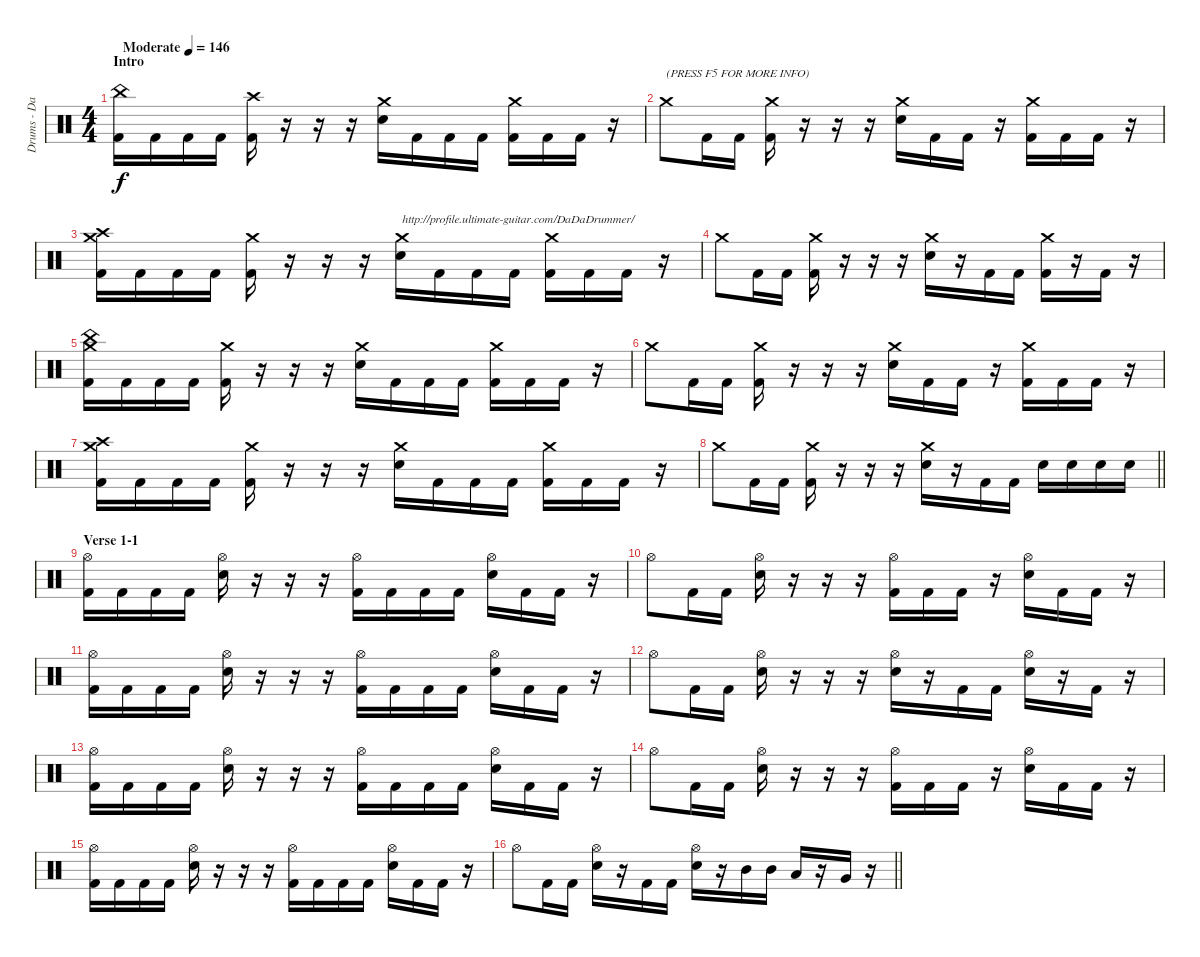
\track ("Drums - DaDa" "Drums - Da") {instrument percussion}
\staff {score}
\articulation defaults
\ts (4 4)
\section ("" "Intro")
\tempo (146 "Moderate")
\clef neutral
\ks c
("China (hit)" "Kick (hit) 2").16{dy f} "Kick (hit) 2".16 "Kick (hit) 2".16 "Kick (hit) 2".16 ("Crash high (hit)" "Kick (hit) 2").16 r.16 r.16 r.16 ("Crash medium (hit)" "Electric Snare (hit)").16 "Kick (hit) 2".16 "Kick (hit) 2".16 "Kick (hit) 2".16 ("Crash medium (hit)" "Kick (hit) 2").16 "Kick (hit) 2".16 "Kick (hit) 2".16 r.16 |
"Crash medium (hit)".8{txt "(PRESS F5 FOR MORE INFO)"} "Kick (hit) 2".16 "Kick (hit) 2".16 ("Crash medium (hit)" "Kick (hit) 2").16 r.16 r.16 r.16 ("Crash medium (hit)" "Electric Snare (hit)").16 "Kick (hit) 2".16 "Kick (hit) 2".16 r.16 ("Crash medium (hit)" "Kick (hit) 2").16 "Kick (hit) 2".16 "Kick (hit) 2".16 r.16 |
("Crash medium (hit)" "Crash high (hit)" "Kick (hit) 2").16 "Kick (hit) 2".16 "Kick (hit) 2".16 "Kick (hit) 2".16 ("Crash medium (hit)" "Kick (hit) 2").16 r.16 r.16 r.16 ("Crash medium (hit)" "Electric Snare (hit)").16{txt "http://profile.ultimate-guitar.com/DaDaDrummer/"} "Kick (hit) 2".16 "Kick (hit) 2".16 "Kick (hit) 2".16 ("Crash medium (hit)" "Kick (hit) 2").16 "Kick (hit) 2".16 "Kick (hit) 2".16 r.16 |
"Crash medium (hit)".8 "Kick (hit) 2".16 "Kick (hit) 2".16 ("Crash medium (hit)" "Kick (hit) 2").16 r.16 r.16 r.16 ("Crash medium (hit)" "Electric Snare (hit)").16 r.16 "Kick (hit) 2".16 "Kick (hit) 2".16 ("Crash medium (hit)" "Kick (hit) 2").16 r.16 "Kick (hit) 2".16 r.16 |
("China (hit)" "Crash medium (hit)" "Kick (hit) 2").16 "Kick (hit) 2".16 "Kick (hit) 2".16 "Kick (hit) 2".16 ("Crash medium (hit)" "Kick (hit) 2").16 r.16 r.16 r.16 ("Crash medium (hit)" "Electric Snare (hit)").16 "Kick (hit) 2".16 "Kick (hit) 2".16 "Kick (hit) 2".16 ("Crash medium (hit)" "Kick (hit) 2").16 "Kick (hit) 2".16 "Kick (hit) 2".16 r.16 |
"Crash medium (hit)".8 "Kick (hit) 2".16 "Kick (hit) 2".16 ("Crash medium (hit)" "Kick (hit) 2").16 r.16 r.16 r.16 ("Crash medium (hit)" "Electric Snare (hit)").16 "Kick (hit) 2".16 "Kick (hit) 2".16 r.16 ("Crash medium (hit)" "Kick (hit) 2").16 "Kick (hit) 2".16 "Kick (hit) 2".16 r.16 |
("Crash medium (hit)" "Crash high (hit)" "Kick (hit) 2").16 "Kick (hit) 2".16 "Kick (hit) 2".16 "Kick (hit) 2".16 ("Crash medium (hit)" "Kick (hit) 2").16 r.16 r.16 r.16 ("Crash medium (hit)" "Electric Snare (hit)").16 "Kick (hit) 2".16 "Kick (hit) 2".16 "Kick (hit) 2".16 ("Crash medium (hit)" "Kick (hit) 2").16 "Kick (hit) 2".16 "Kick (hit) 2".16 r.16 |
\barLineRight lightlight "Crash medium (hit)".8 "Kick (hit) 2".16 "Kick (hit) 2".16
("Crash medium (hit)" "Kick (hit) 2").16 r.16 r.16 r.16 ("Crash medium (hit)" "Electric Snare (hit)").16 r.16 "Kick (hit) 2".16 "Kick (hit) 2".16 "Electric Snare (hit)".16 "Electric Snare (hit)".16 "Electric Snare (hit)".16 "Electric Snare (hit)".16 |
\section ("" "Verse 1-1")
("Hi-Hat (open)" "Kick (hit) 2").16 "Kick (hit) 2".16 "Kick (hit) 2".16 "Kick (hit) 2".16 ("Hi-Hat (open)" "Electric Snare (hit)").16 r.16 r.16 r.16 ("Hi-Hat (open)" "Kick (hit) 2").16 "Kick (hit) 2".16 "Kick (hit) 2".16 "Kick (hit) 2".16 ("Hi-Hat (open)" "Electric Snare (hit)").16 "Kick (hit) 2".16 "Kick (hit) 2".16 r.16 |
"Hi-Hat (open)".8 "Kick (hit) 2".16 "Kick (hit) 2".16 ("Hi-Hat (open)" "Electric Snare (hit)").16 r.16 r.16 r.16 ("Hi-Hat (open)" "Kick (hit) 2").16 "Kick (hit) 2".16 "Kick (hit) 2".16 r.16 ("Hi-Hat (open)" "Electric Snare (hit)").16 "Kick (hit) 2".16 "Kick (hit) 2".16 r.16 |
("Hi-Hat (open)" "Kick (hit) 2").16 "Kick (hit) 2".16 "Kick (hit) 2".16 "Kick (hit) 2".16 ("Hi-Hat (open)" "Electric Snare (hit)").16 r.16 r.16 r.16 ("Hi-Hat (open)" "Kick (hit) 2").16 "Kick (hit) 2".16 "Kick (hit) 2".16 "Kick (hit) 2".16 ("Hi-Hat (open)" "Electric Snare (hit)").16 "Kick (hit) 2".16 "Kick (hit) 2".16 r.16 |
"Hi-Hat (open)".8 "Kick (hit) 2".16 "Kick (hit) 2".16 ("Hi-Hat (open)" "Electric Snare (hit)").16 r.16 r.16 r.16 ("Hi-Hat (open)" "Electric Snare (hit)").16 r.16 "Kick (hit) 2".16 "Kick (hit) 2".16 ("Hi-Hat (open)" "Electric Snare (hit)").16 r.16 "Kick (hit) 2".16 r.16 |
("Hi-Hat (open)" "Kick (hit) 2").16 "Kick (hit) 2".16 "Kick (hit) 2".16 "Kick (hit) 2".16 ("Hi-Hat (open)" "Electric Snare (hit)").16 r.16 r.16 r.16 ("Hi-Hat (open)" "Kick (hit) 2").16 "Kick (hit) 2".16 "Kick (hit) 2".16 "Kick (hit) 2".16 ("Hi-Hat (open)" "Electric Snare (hit)").16 "Kick (hit) 2".16 "Kick (hit) 2".16 r.16 |
"Hi-Hat (open)".8 "Kick (hit) 2".16 "Kick (hit) 2".16 ("Hi-Hat (open)" "Electric Snare (hit)").16 r.16 r.16 r.16 ("Hi-Hat (open)" "Kick (hit) 2").16 "Kick (hit) 2".16 "Kick (hit) 2".16 r.16 ("Hi-Hat (open)" "Electric Snare (hit)").16 "Kick (hit) 2".16 "Kick (hit) 2".16 r.16 |
("Hi-Hat (open)" "Kick (hit) 2").16 "Kick (hit) 2".16 "Kick (hit) 2".16 "Kick (hit) 2".16 ("Hi-Hat (open)" "Electric Snare (hit)").16 r.16 r.16 r.16 ("Hi-Hat (open)" "Kick (hit) 2").16 "Kick (hit) 2".16 "Kick (hit) 2".16 "Kick (hit) 2".16 ("Hi-Hat (open)" "Electric Snare (hit)").16 "Kick (hit) 2".16 "Kick (hit) 2".16 r.16 |
\barLineRight lightlight "Hi-Hat (open)".8 "Kick (hit) 2".16 "Kick (hit) 2".16
("Hi-Hat (open)" "Electric Snare (hit)").16 r.16 "Kick (hit) 2".16 "Kick (hit) 2".16 ("Hi-Hat (open)" "Electric Snare (hit)").16 r.16 "Mid Tom (hit)".16 "Mid Tom (hit)".16 "Low Tom (hit)".16 r.16 "Very Low Tom (hit)".16 r.16
